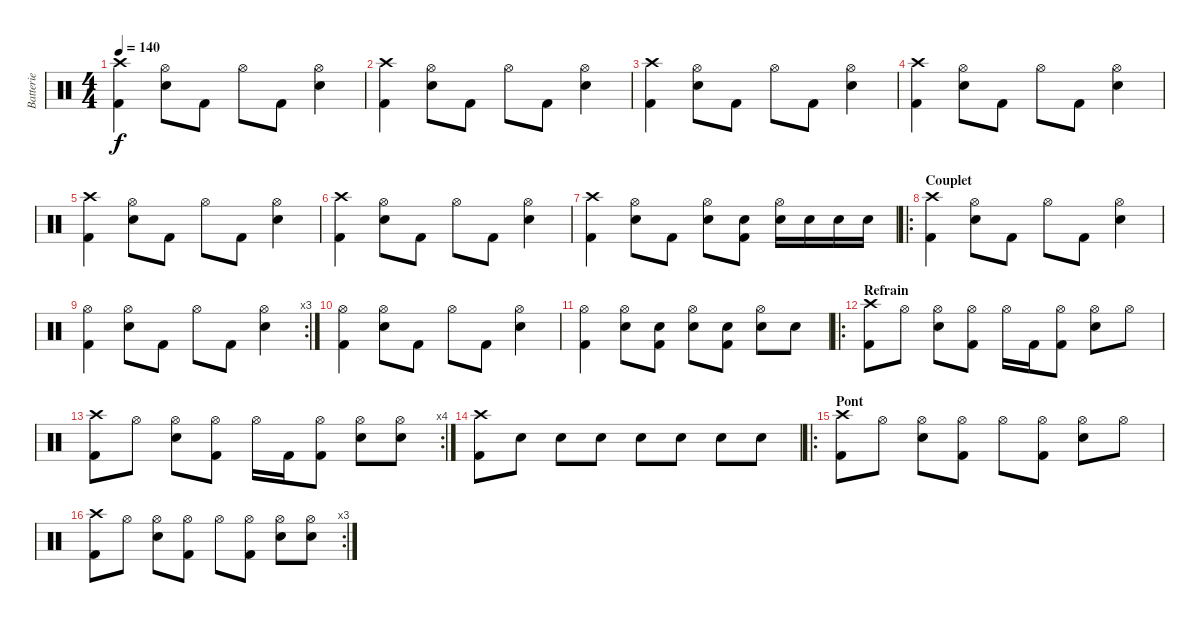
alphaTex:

\track ("Batterie" "Batterie") {instrument percussion}
\staff {score}
\articulation defaults
\ts (4 4)
\tempo 140
\clef neutral
\ks c
("Crash high (hit)" "Kick (hit) 2").4{dy f} ("Electric Snare (hit)" "Hi-Hat (open)").8 "Kick (hit) 2".8 "Hi-Hat (open)".8 "Kick (hit) 2".8 ("Electric Snare (hit)" "Hi-Hat (open)").4 |
("Crash high (hit)" "Kick (hit) 2").4 ("Electric Snare (hit)" "Hi-Hat (open)").8 "Kick (hit) 2".8 "Hi-Hat (open)".8 "Kick (hit) 2".8 ("Electric Snare (hit)" "Hi-Hat (open)").4 |
("Crash high (hit)" "Kick (hit) 2").4 ("Electric Snare (hit)" "Hi-Hat (open)").8 "Kick (hit) 2".8 "Hi-Hat (open)".8 "Kick (hit) 2".8 ("Electric Snare (hit)" "Hi-Hat (open)").4 |
("Crash high (hit)" "Kick (hit) 2").4 ("Electric Snare (hit)" "Hi-Hat (open)").8 "Kick (hit) 2".8 "Hi-Hat (open)".8 "Kick (hit) 2".8 ("Electric Snare (hit)" "Hi-Hat (open)").4 |
("Crash high (hit)" "Kick (hit) 2").4 ("Electric Snare (hit)" "Hi-Hat (open)").8 "Kick (hit) 2".8 "Hi-Hat (open)".8 "Kick (hit) 2".8 ("Electric Snare (hit)" "Hi-Hat (open)").4 |
("Crash high (hit)" "Kick (hit) 2").4 ("Electric Snare (hit)" "Hi-Hat (open)").8 "Kick (hit) 2".8 "Hi-Hat (open)".8 "Kick (hit) 2".8 ("Electric Snare (hit)" "Hi-Hat (open)").4 |
("Crash high (hit)" "Kick (hit) 2").4 ("Electric Snare (hit)" "Hi-Hat (open)").8 "Kick (hit) 2".8 ("Electric Snare (hit)" "Hi-Hat (open)").8 ("Electric Snare (hit)" "Kick (hit) 2").8 ("Electric Snare (hit)" "Hi-Hat (open)").16 "Electric Snare (hit)".16 "Electric Snare (hit)".16 "Electric Snare (hit)".16 |
\ro
\section ("" "Couplet")
("Crash high (hit)" "Kick (hit) 2").4 ("Electric Snare (hit)" "Hi-Hat (open)").8 "Kick (hit) 2".8 "Hi-Hat (open)".8 "Kick (hit) 2".8 ("Electric Snare (hit)" "Hi-Hat (open)").4 |
\rc 3
("Hi-Hat (open)" "Kick (hit) 2").4 ("Electric Snare (hit)" "Hi-Hat (open)").8 "Kick (hit) 2".8 "Hi-Hat (open)".8 "Kick (hit) 2".8 ("Electric Snare (hit)" "Hi-Hat (open)").4 |
("Hi-Hat (open)" "Kick (hit) 2").4 ("Electric Snare (hit)" "Hi-Hat (open)").8 "Kick (hit) 2".8 "Hi-Hat (open)".8 "Kick (hit) 2".8 ("Electric Snare (hit)" "Hi-Hat (open)").4 |
("Hi-Hat (open)" "Kick (hit) 2").4 ("Electric Snare (hit)" "Hi-Hat (open)").8 ("Electric Snare (hit)" "Kick (hit) 2").8 ("Electric Snare (hit)" "Hi-Hat (open)").8 ("Electric Snare (hit)" "Kick (hit) 2").8 ("Electric Snare (hit)" "Hi-Hat (open)").8 "Electric Snare (hit)".8 |
\ro
\section ("" "Refrain")
("Crash high (hit)" "Kick (hit) 2").8 "Hi-Hat (open)".8 ("Electric Snare (hit)" "Hi-Hat (open)").8 ("Hi-Hat (open)" "Kick (hit) 2").8 "Hi-Hat (open)".16 "Kick (hit) 2".16 ("Hi-Hat (open)" "Kick (hit) 2").8 ("Electric Snare (hit)" "Hi-Hat (open)").8 "Hi-Hat (open)".8 |
\rc 4
("Crash high (hit)" "Kick (hit) 2").8 "Hi-Hat (open)".8 ("Electric Snare (hit)" "Hi-Hat (open)").8 ("Hi-Hat (open)" "Kick (hit) 2").8 "Hi-Hat (open)".16 "Kick (hit) 2".16 ("Hi-Hat (open)" "Kick (hit) 2").8 ("Electric Snare (hit)" "Hi-Hat (open)").8 ("Electric Snare (hit)" "Hi-Hat (open)").8 |
("Crash high (hit)" "Kick (hit) 2").8 "Electric Snare (hit)".8 "Electric Snare (hit)".8 "Electric Snare (hit)".8 "Electric Snare (hit)".8 "Electric Snare (hit)".8 "Electric Snare (hit)".8 "Electric Snare (hit)".8 |
\ro
\section ("" "Pont")
("Crash high (hit)" "Kick (hit) 2").8 "Hi-Hat (open)".8 ("Electric Snare (hit)" "Hi-Hat (open)").8 ("Hi-Hat (open)" "Kick (hit) 2").8 "Hi-Hat (open)".8 ("Hi-Hat (open)" "Kick (hit) 2").8 ("Electric Snare (hit)" "Hi-Hat (open)").8 "Hi-Hat (open)".8 |
\rc 3
("Crash high (hit)" "Kick (hit) 2").8 "Hi-Hat (open)".8 ("Electric Snare (hit)" "Hi-Hat (open)").8 ("Hi-Hat (open)" "Kick (hit) 2").8 "Hi-Hat (open)".8 ("Hi-Hat (open)" "Kick (hit) 2").8 ("Electric Snare (hit)" "Hi-Hat (open)").8 ("Electric Snare (hit)" "Hi-Hat (open)").8
